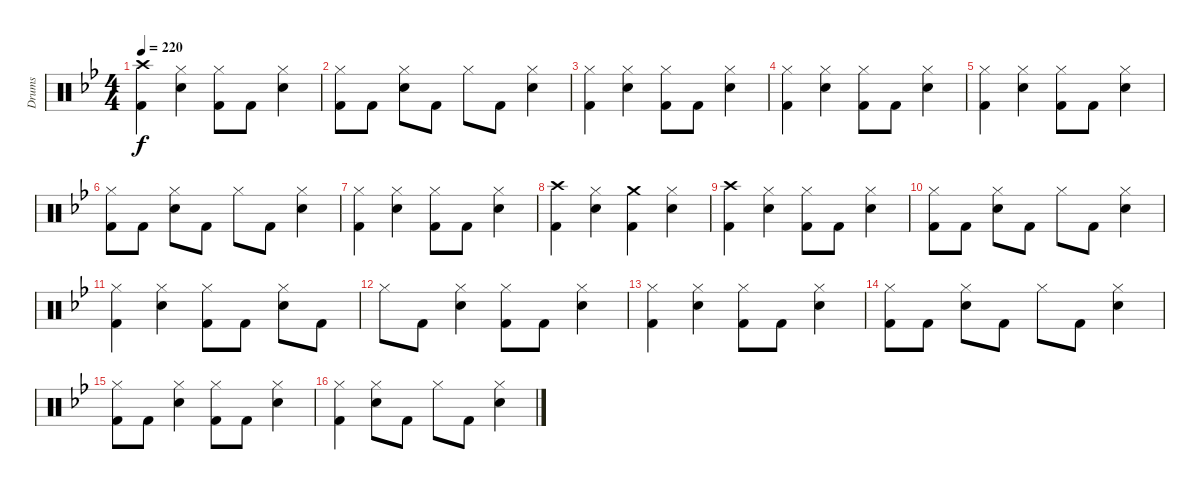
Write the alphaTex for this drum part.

\track ("Drums" "Drums") {instrument percussion}
\staff {score}
\articulation defaults
\ts (4 4)
\tempo 220
\clef neutral
\ks gminor
("Kick (hit) 2" "Crash high (hit)").4{dy f} ("Snare (hit) 2" "Hi-Hat (closed)").4 ("Kick (hit) 2" "Hi-Hat (closed)").8 "Kick (hit) 2".8 ("Snare (hit) 2" "Hi-Hat (closed)").4 |
("Kick (hit) 2" "Hi-Hat (closed)").8 "Kick (hit) 2".8 ("Snare (hit) 2" "Hi-Hat (closed)").8 "Kick (hit) 2".8 "Hi-Hat (closed)".8 "Kick (hit) 2".8 ("Snare (hit) 2" "Hi-Hat (closed)").4 |
("Kick (hit) 2" "Hi-Hat (closed)").4 ("Snare (hit) 2" "Hi-Hat (closed)").4 ("Kick (hit) 2" "Hi-Hat (closed)").8 "Kick (hit) 2".8 ("Snare (hit) 2" "Hi-Hat (closed)").4 |
("Kick (hit) 2" "Hi-Hat (closed)").4 ("Snare (hit) 2" "Hi-Hat (closed)").4 ("Kick (hit) 2" "Hi-Hat (closed)").8 "Kick (hit) 2".8 ("Snare (hit) 2" "Hi-Hat (closed)").4 |
("Kick (hit) 2" "Hi-Hat (closed)").4 ("Snare (hit) 2" "Hi-Hat (closed)").4 ("Kick (hit) 2" "Hi-Hat (closed)").8 "Kick (hit) 2".8 ("Snare (hit) 2" "Hi-Hat (closed)").4 |
("Kick (hit) 2" "Hi-Hat (closed)").8 "Kick (hit) 2".8 ("Snare (hit) 2" "Hi-Hat (closed)").8 "Kick (hit) 2".8 "Hi-Hat (closed)".8 "Kick (hit) 2".8 ("Snare (hit) 2" "Hi-Hat (closed)").4 |
("Kick (hit) 2" "Hi-Hat (closed)").4 ("Snare (hit) 2" "Hi-Hat (closed)").4 ("Kick (hit) 2" "Hi-Hat (closed)").8 "Kick (hit) 2".8 ("Snare (hit) 2" "Hi-Hat (closed)").4 |
("Kick (hit) 2" "Crash high (hit)").4 ("Snare (hit) 2" "Hi-Hat (closed)").4 ("Kick (hit) 2" "Crash medium (hit)").4 ("Snare (hit) 2" "Hi-Hat (closed)").4 |
("Kick (hit) 2" "Crash high (hit)").4 ("Snare (hit) 2" "Hi-Hat (closed)").4 ("Kick (hit) 2" "Hi-Hat (closed)").8 "Kick (hit) 2".8 ("Snare (hit) 2" "Hi-Hat (closed)").4 |
("Kick (hit) 2" "Hi-Hat (closed)").8 "Kick (hit) 2".8 ("Snare (hit) 2" "Hi-Hat (closed)").8 "Kick (hit) 2".8 "Hi-Hat (closed)".8 "Kick (hit) 2".8 ("Snare (hit) 2" "Hi-Hat (closed)").4 |
("Kick (hit) 2" "Hi-Hat (closed)").4 ("Snare (hit) 2" "Hi-Hat (closed)").4 ("Kick (hit) 2" "Hi-Hat (closed)").8 "Kick (hit) 2".8 ("Snare (hit) 2" "Hi-Hat (closed)").8 "Kick (hit) 2".8 |
"Hi-Hat (closed)".8 "Kick (hit) 2".8 ("Snare (hit) 2" "Hi-Hat (closed)").4 ("Kick (hit) 2" "Hi-Hat (closed)").8 "Kick (hit) 2".8 ("Snare (hit) 2" "Hi-Hat (closed)").4 |
("Kick (hit) 2" "Hi-Hat (closed)").4 ("Snare (hit) 2" "Hi-Hat (closed)").4 ("Kick (hit) 2" "Hi-Hat (closed)").8 "Kick (hit) 2".8 ("Snare (hit) 2" "Hi-Hat (closed)").4 |
("Kick (hit) 2" "Hi-Hat (closed)").8 "Kick (hit) 2".8 ("Snare (hit) 2" "Hi-Hat (closed)").8 "Kick (hit) 2".8 "Hi-Hat (closed)".8 "Kick (hit) 2".8 ("Snare (hit) 2" "Hi-Hat (closed)").4 |
("Kick (hit) 2" "Hi-Hat (closed)").8 "Kick (hit) 2".8 ("Snare (hit) 2" "Hi-Hat (closed)").4 ("Kick (hit) 2" "Hi-Hat (closed)").8 "Kick (hit) 2".8 ("Snare (hit) 2" "Hi-Hat (closed)").4 |
("Kick (hit) 2" "Hi-Hat (closed)").4 ("Snare (hit) 2" "Hi-Hat (closed)").8 "Kick (hit) 2".8 "Hi-Hat (closed)".8 "Kick (hit) 2".8 ("Snare (hit) 2" "Hi-Hat (closed)").4
